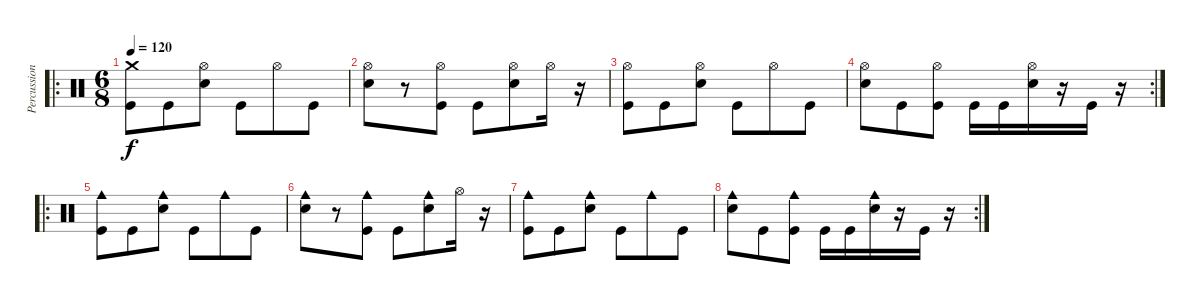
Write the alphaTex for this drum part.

\track ("Percussion" "Percussion") {instrument percussion}
\staff {score}
\articulation defaults
\ro
\ts (6 8)
\tempo 120
\clef neutral
\ks c
("Crash medium (hit)" "Kick (hit)").8{dy f} "Kick (hit)".8 ("Hi-Hat (open)" "Electric Snare (hit)").8 "Kick (hit)".8 "Hi-Hat (open)".8 "Kick (hit)".8 |
("Hi-Hat (open)" "Electric Snare (hit)").8 r.8 ("Hi-Hat (open)" "Kick (hit)").8 "Kick (hit)".8 ("Hi-Hat (open)" "Electric Snare (hit)").8 "Hi-Hat (open)".16 r.16 |
("Hi-Hat (open)" "Kick (hit)").8 "Kick (hit)".8 ("Hi-Hat (open)" "Electric Snare (hit)").8 "Kick (hit)".8 "Hi-Hat (open)".8 "Kick (hit)".8 |
\rc 2
("Hi-Hat (open)" "Electric Snare (hit)").8 "Kick (hit)".8 ("Hi-Hat (open)" "Kick (hit)").8 "Kick (hit)".16 "Kick (hit)".16 ("Hi-Hat (open)" "Electric Snare (hit)").16 r.16 "Kick (hit)".16 r.16 |
\ro
("Cowbell medium (hit)" "Kick (hit)").8 "Kick (hit)".8 ("Cowbell medium (hit)" "Electric Snare (hit)").8 "Kick (hit)".8 "Cowbell medium (hit)".8 "Kick (hit)".8 |
("Cowbell medium (hit)" "Electric Snare (hit)").8 r.8 ("Cowbell medium (hit)" "Kick (hit)").8 "Kick (hit)".8 ("Cowbell medium (hit)" "Electric Snare (hit)").8 "Hi-Hat (open)".16 r.16 |
("Cowbell medium (hit)" "Kick (hit)").8 "Kick (hit)".8 ("Cowbell medium (hit)" "Electric Snare (hit)").8 "Kick (hit)".8 "Cowbell medium (hit)".8 "Kick (hit)".8 |
\rc 2
("Cowbell medium (hit)" "Electric Snare (hit)").8 "Kick (hit)".8 ("Cowbell medium (hit)" "Kick (hit)").8 "Kick (hit)".16 "Kick (hit)".16 ("Cowbell medium (hit)" "Electric Snare (hit)").16 r.16 "Kick (hit)".16 r.16
